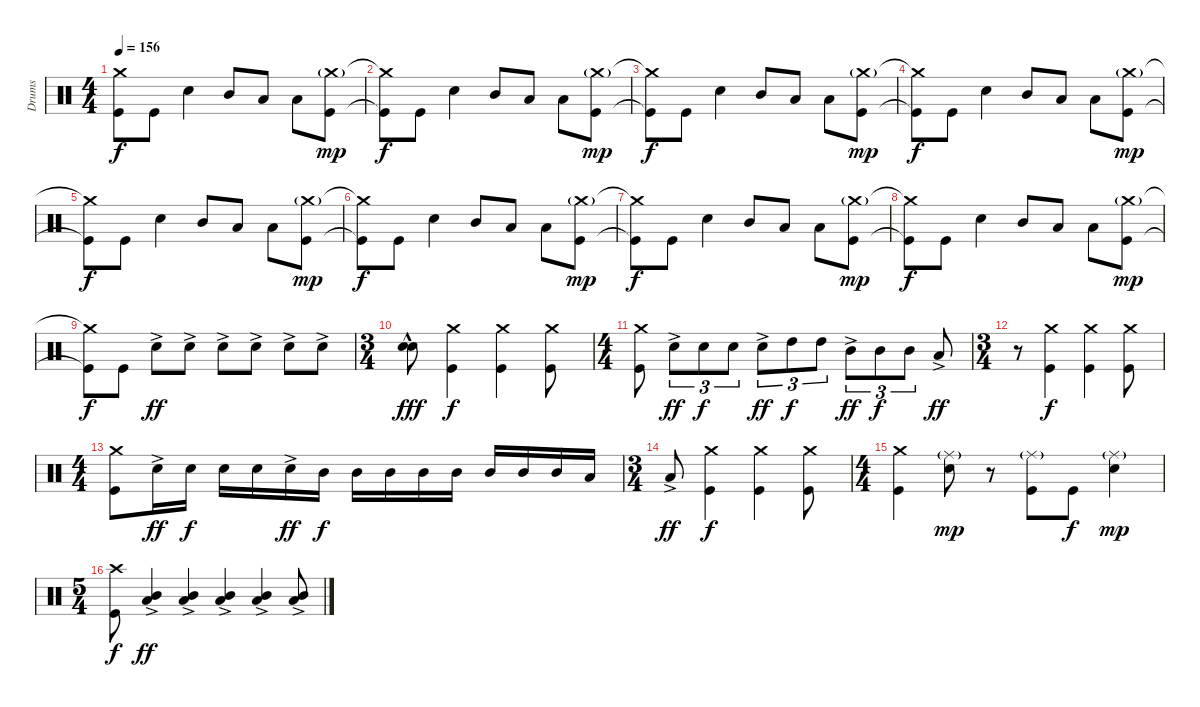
\track ("Drums" "Drums") {instrument percussion}
\staff {score}
\articulation defaults
\ts (4 4)
\tempo 156
\clef neutral
\ks c
("Crash medium (hit)"{t} "Kick (hit)"{t}).8{dy f} "Kick (hit)".8 "Electric Snare (hit)".4 "Mid Tom (hit)".8 "Low Tom (hit)".8 "Low Tom (hit)".8 ("Crash medium (hit)"{g} "Kick (hit)").8{dy mp} |
("Crash medium (hit)"{t} "Kick (hit)"{t}).8{dy f} "Kick (hit)".8 "Electric Snare (hit)".4 "Mid Tom (hit)".8 "Low Tom (hit)".8 "Low Tom (hit)".8 ("Crash medium (hit)"{g} "Kick (hit)").8{dy mp} |
("Crash medium (hit)"{t} "Kick (hit)"{t}).8{dy f} "Kick (hit)".8 "Electric Snare (hit)".4 "Mid Tom (hit)".8 "Low Tom (hit)".8 "Low Tom (hit)".8 ("Crash medium (hit)"{g} "Kick (hit)").8{dy mp} |
("Crash medium (hit)"{t} "Kick (hit)"{t}).8{dy f} "Kick (hit)".8 "Electric Snare (hit)".4 "Mid Tom (hit)".8 "Low Tom (hit)".8 "Low Tom (hit)".8 ("Crash medium (hit)"{g} "Kick (hit)").8{dy mp} |
("Crash medium (hit)"{t} "Kick (hit)"{t}).8{dy f} "Kick (hit)".8 "Electric Snare (hit)".4 "Mid Tom (hit)".8 "Low Tom (hit)".8 "Low Tom (hit)".8 ("Crash medium (hit)"{g} "Kick (hit)").8{dy mp} |
("Crash medium (hit)"{t} "Kick (hit)"{t}).8{dy f} "Kick (hit)".8 "Electric Snare (hit)".4 "Mid Tom (hit)".8 "Low Tom (hit)".8 "Low Tom (hit)".8 ("Crash medium (hit)"{g} "Kick (hit)").8{dy mp} |
("Crash medium (hit)"{t} "Kick (hit)"{t}).8{dy f} "Kick (hit)".8 "Electric Snare (hit)".4 "Mid Tom (hit)".8 "Low Tom (hit)".8 "Low Tom (hit)".8 ("Crash medium (hit)"{g} "Kick (hit)").8{dy mp} |
("Crash medium (hit)"{t} "Kick (hit)"{t}).8{dy f} "Kick (hit)".8 "Electric Snare (hit)".4 "Mid Tom (hit)".8 "Low Tom (hit)".8 "Low Tom (hit)".8 ("Crash medium (hit)"{g} "Kick (hit)").8{dy mp} |
("Crash medium (hit)"{t} "Kick (hit)"{t}).8{dy f} "Kick (hit)".8 "Electric Snare (hit)"{ac}.8{dy ff} "Electric Snare (hit)"{ac}.8 "Electric Snare (hit)"{ac}.8 "Electric Snare (hit)"{ac}.8 "Electric Snare (hit)"{ac}.8 "Electric Snare (hit)"{ac}.8 |
\ts (3 4)
("Electric Snare (hit)" "Electric Snare (hit)"{hac}).8{dy fff} ("Crash medium (hit)" "Kick (hit)").4{dy f} ("Crash medium (hit)" "Kick (hit)").4 ("Crash medium (hit)" "Kick (hit)").8 |
\ts (4 4)
("Crash medium (hit)" "Kick (hit)").8 "Electric Snare (hit)"{ac}.8{tu (3 2) dy ff} "Electric Snare (hit)".8{tu (3 2) dy f} "Electric Snare (hit)".8{tu (3 2)} "Electric Snare (hit)"{ac}.8{tu (3 2) dy ff} "High Tom (hit)".8{tu (3 2) dy f} "High Tom (hit)".8{tu (3 2)} "Mid Tom (hit)"{ac}.8{tu (3 2) dy ff} "Mid Tom (hit)".8{tu (3 2) dy f} "Mid Tom (hit)".8{tu (3 2)} "Low Tom (hit)"{ac}.8{dy ff} |
\ts (3 4)
r.8 ("Crash medium (hit)" "Kick (hit)").4{dy f} ("Crash medium (hit)" "Kick (hit)").4 ("Crash medium (hit)" "Kick (hit)").8 |
\ts (4 4)
("Crash medium (hit)" "Kick (hit)").8 "Electric Snare (hit)"{ac}.16{dy ff} "Electric Snare (hit)".16{dy f} "Electric Snare (hit)".16 "Electric Snare (hit)".16 "Electric Snare (hit)"{ac}.16{dy ff} "Mid Tom (hit)".16{dy f} "Mid Tom (hit)".16 "Mid Tom (hit)".16 "Mid Tom (hit)".16 "Mid Tom (hit)".16 "Mid Tom (hit)".16 "Mid Tom (hit)".16 "Mid Tom (hit)".16 "Low Tom (hit)".16 |
\ts (3 4)
"Low Tom (hit)"{ac}.8{dy ff} ("Crash medium (hit)" "Kick (hit)").4{dy f} ("Crash medium (hit)" "Kick (hit)").4 ("Crash medium (hit)" "Kick (hit)").8 |
\ts (4 4)
("Crash medium (hit)" "Kick (hit)").4 ("Ride (middle)"{g} "Electric Snare (hit)").8{dy mp} r.8 ("Ride (middle)"{g} "Kick (hit)").8 "Kick (hit)".8{dy f} ("Ride (middle)"{g} "Electric Snare (hit)").4{dy mp} |
\ts (5 4)
("Crash high (hit)" "Kick (hit)").8{dy f} ("Mid Tom (hit)"{ac} "Low Tom (hit)"{ac}).4{dy ff} ("Mid Tom (hit)"{ac} "Low Tom (hit)"{ac}).4 ("Mid Tom (hit)"{ac} "Low Tom (hit)"{ac}).4 ("Mid Tom (hit)"{ac} "Low Tom (hit)"{ac}).4 ("Mid Tom (hit)"{ac} "Low Tom (hit)"{ac}).8
